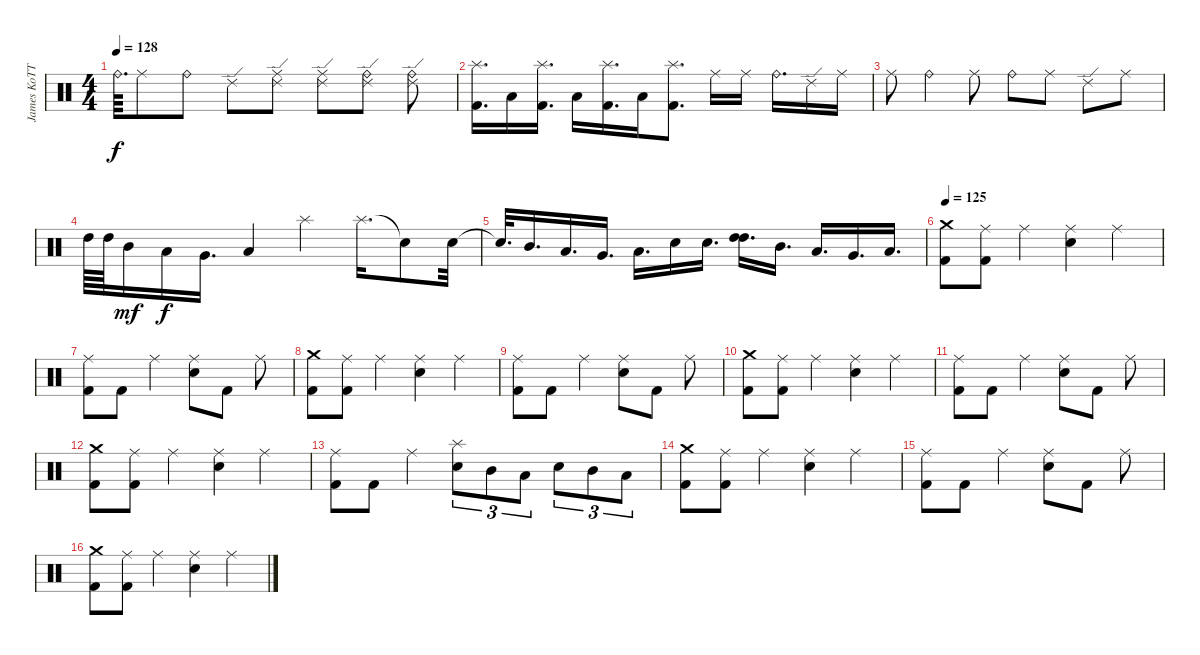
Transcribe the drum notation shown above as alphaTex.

\track ("James KoTTak" "James KoTT") {instrument percussion}
\staff {score}
\articulation defaults
\ts (4 4)
\tempo 128
\clef neutral
\ks c "Ride (bell)"{t}.64{d dy f} "Ride (middle)".8 "Ride (bell)".8 "Ride (edge) 2".8
("Ride (edge) 2" "Ride (middle)").8{bu 240} ("Ride (edge) 2" "Ride (middle)").8{bd 240} ("Ride (edge) 2" "Ride (bell)").8{bd 240} ("Ride (edge) 2" "Ride (bell)").8{bu 240} |
("Kick (hit) 2" "Splash (hit)").16{d} "Low Tom (hit)".16 ("Kick (hit) 2" "Splash (hit)").16{d} "Low Tom (hit)".16 ("Kick (hit) 2" "Splash (hit)").16{d} "Low Tom (hit)".16 ("Kick (hit) 2" "Splash (hit)").8{d} "Ride (middle)".16 "Ride (middle)".16 "Ride (bell)".16{d} "Ride (edge) 2".16 "Ride (middle)".16 |
"Ride (middle)".8 "Ride (bell)".4 "Ride (middle)".8 "Ride (bell)".8 "Ride (middle)".8 "Ride (edge) 2".8 "Ride (middle)".8 |
"High Tom (hit)".64 "High Tom (hit)".64 "Mid Tom (hit)".16{dy mf} "Low Tom (hit)".16{dy f} "Very Low Tom (hit)".16{d} "Low Floor Tom (hit)".4 "Splash (hit)".4 "Splash (hit)".16{d} "Snare (hit) 2"{t}.8 "Snare (hit) 2".32 |
"Snare (hit) 2"{t}.32{d} "Mid Tom (hit)".16{d} "Low Tom (hit)".16{d} "Very Low Tom (hit)".16{d} "Low Floor Tom (hit)".16{d} "Snare (hit) 2".16 "Snare (hit) 2".16{d} ("High Tom (hit)" "High Tom (hit)").16{d bd 120} "Mid Tom (hit)".16{d} "Low Tom (hit)".16{d} "Very Low Tom (hit)".16{d} "Low Floor Tom (hit)".16{d} |
\tempo 125
("Kick (hit) 2" "Crash medium (hit)").8 ("Kick (hit) 2" "Ride (middle)").8 "Ride (middle)".4 ("Snare (hit) 2" "Ride (middle)").4 "Ride (middle)".4 |
("Kick (hit) 2" "Ride (middle)").8 "Kick (hit) 2".8 "Ride (middle)".4 ("Snare (hit) 2" "Ride (middle)").8 "Kick (hit) 2".8 "Ride (middle)".8 |
("Kick (hit) 2" "Crash medium (hit)").8 ("Kick (hit) 2" "Ride (middle)").8 "Ride (middle)".4 ("Snare (hit) 2" "Ride (middle)").4 "Ride (middle)".4 |
("Kick (hit) 2" "Ride (middle)").8 "Kick (hit) 2".8 "Ride (middle)".4 ("Snare (hit) 2" "Ride (middle)").8 "Kick (hit) 2".8 "Ride (middle)".8 |
("Kick (hit) 2" "Crash medium (hit)").8 ("Kick (hit) 2" "Ride (middle)").8 "Ride (middle)".4 ("Snare (hit) 2" "Ride (middle)").4 "Ride (middle)".4 |
("Kick (hit) 2" "Ride (middle)").8 "Kick (hit) 2".8 "Ride (middle)".4 ("Snare (hit) 2" "Ride (middle)").8 "Kick (hit) 2".8 "Ride (middle)".8 |
("Kick (hit) 2" "Crash medium (hit)").8 ("Kick (hit) 2" "Ride (middle)").8 "Ride (middle)".4 ("Snare (hit) 2" "Ride (middle)").4 "Ride (middle)".4 |
("Kick (hit) 2" "Ride (middle)").8 "Kick (hit) 2".8 "Ride (middle)".4 ("Snare (hit) 2" "Splash (hit)").8{tu (3 2)} "Mid Tom (hit)".8{tu (3 2)} "Low Tom (hit)".8{tu (3 2)} "Snare (hit) 2".8{tu (3 2)} "Mid Tom (hit)".8{tu (3 2)} "Low Tom (hit)".8{tu (3 2)} |
("Kick (hit) 2" "Crash medium (hit)").8 ("Kick (hit) 2" "Ride (middle)").8 "Ride (middle)".4 ("Snare (hit) 2" "Ride (middle)").4 "Ride (middle)".4 |
("Kick (hit) 2" "Ride (middle)").8 "Kick (hit) 2".8 "Ride (middle)".4 ("Snare (hit) 2" "Ride (middle)").8 "Kick (hit) 2".8 "Ride (middle)".8 |
("Kick (hit) 2" "Crash medium (hit)").8 ("Kick (hit) 2" "Ride (middle)").8 "Ride (middle)".4 ("Snare (hit) 2" "Ride (middle)").4 "Ride (middle)".4
